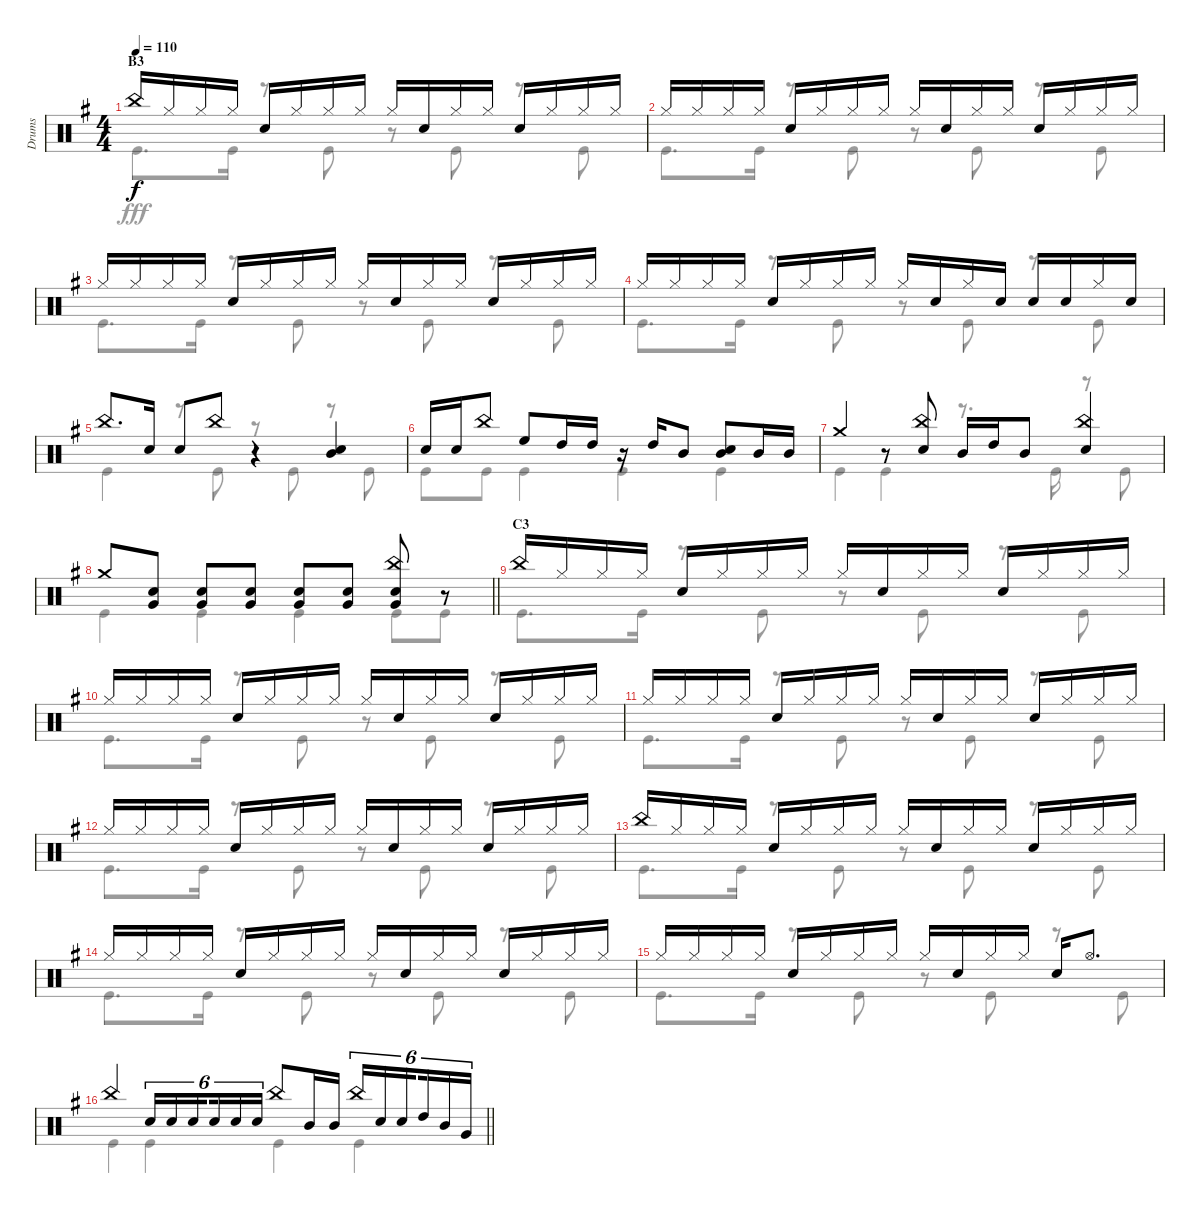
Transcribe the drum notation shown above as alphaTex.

\track ("Drums" "Drums") {instrument percussion}
\staff {score}
\articulation defaults
\voice
\ts (4 4)
\section ("" "B3")
\tempo 110
\clef neutral
\ks g "China (hit)".16{dy f} "Hi-Hat (closed)".16 "Hi-Hat (closed)".16 "Hi-Hat (closed)".16 "Snare (hit) 2".16 "Hi-Hat (closed)".16 "Hi-Hat (closed)".16 "Hi-Hat (closed)".16 "Hi-Hat (closed)".16 "Snare (hit) 2".16 "Hi-Hat (closed)".16 "Hi-Hat (closed)".16 "Snare (hit) 2".16 "Hi-Hat (closed)".16 "Hi-Hat (closed)".16 "Hi-Hat (closed)".16
|
"Hi-Hat (closed)".16 "Hi-Hat (closed)".16 "Hi-Hat (closed)".16 "Hi-Hat (closed)".16 "Snare (hit) 2".16 "Hi-Hat (closed)".16 "Hi-Hat (closed)".16 "Hi-Hat (closed)".16 "Hi-Hat (closed)".16 "Snare (hit) 2".16 "Hi-Hat (closed)".16 "Hi-Hat (closed)".16 "Snare (hit) 2".16 "Hi-Hat (closed)".16 "Hi-Hat (closed)".16 "Hi-Hat (closed)".16 |
"Hi-Hat (closed)".16 "Hi-Hat (closed)".16 "Hi-Hat (closed)".16 "Hi-Hat (closed)".16 "Snare (hit) 2".16 "Hi-Hat (closed)".16 "Hi-Hat (closed)".16 "Hi-Hat (closed)".16 "Hi-Hat (closed)".16 "Snare (hit) 2".16 "Hi-Hat (closed)".16 "Hi-Hat (closed)".16 "Snare (hit) 2".16 "Hi-Hat (closed)".16 "Hi-Hat (closed)".16 "Hi-Hat (closed)".16 |
"Hi-Hat (closed)".16 "Hi-Hat (closed)".16 "Hi-Hat (closed)".16 "Hi-Hat (closed)".16 "Snare (hit) 2".16 "Hi-Hat (closed)".16 "Hi-Hat (closed)".16 "Hi-Hat (closed)".16 "Hi-Hat (closed)".16 "Snare (hit) 2".16 "Hi-Hat (closed)".16 "Snare (hit) 2".16 "Snare (hit) 2".16 "Snare (hit) 2".16 "Hi-Hat (closed)".16 "Snare (hit) 2".16 |
"China (hit)".8{d} "Snare (hit) 2".16 "Snare (hit) 2".8 "China (hit)".8 r.4 ("Mid Tom (hit)" "Snare (hit) 2").4 |
"Snare (hit) 2".16 "Snare (hit) 2".16 "China (hit)".8 "High Floor Tom (hit)".8 "High Tom (hit)".16 "High Tom (hit)".16 r.16 "High Tom (hit)".16 "Mid Tom (hit)".8 ("Mid Tom (hit)" "Snare (hit) 2").8 "Mid Tom (hit)".16 "Mid Tom (hit)".16 |
"Crash medium (hit)".4 r.8 ("China (hit)" "Snare (hit) 2").8 "Mid Tom (hit)".16 "High Tom (hit)".16 "Mid Tom (hit)".8 ("China (hit)" "Snare (hit) 2").4 |
\barLineRight lightlight "Crash medium (hit)".8
("Snare (hit) 2" "Very Low Tom (hit)").8 ("Snare (hit) 2" "Very Low Tom (hit)").8 ("Snare (hit) 2" "Very Low Tom (hit)").8 ("Snare (hit) 2" "Very Low Tom (hit)").8 ("Snare (hit) 2" "Very Low Tom (hit)").8 ("Snare (hit) 2" "Very Low Tom (hit)" "China (hit)").8 r.8 |
\section ("" "C3")
"China (hit)".16 "Hi-Hat (closed)".16 "Hi-Hat (closed)".16 "Hi-Hat (closed)".16 "Snare (hit) 2".16 "Hi-Hat (closed)".16 "Hi-Hat (closed)".16 "Hi-Hat (closed)".16 "Hi-Hat (closed)".16 "Snare (hit) 2".16 "Hi-Hat (closed)".16 "Hi-Hat (closed)".16 "Snare (hit) 2".16 "Hi-Hat (closed)".16 "Hi-Hat (closed)".16 "Hi-Hat (closed)".16 |
"Hi-Hat (closed)".16 "Hi-Hat (closed)".16 "Hi-Hat (closed)".16 "Hi-Hat (closed)".16 "Snare (hit) 2".16 "Hi-Hat (closed)".16 "Hi-Hat (closed)".16 "Hi-Hat (closed)".16 "Hi-Hat (closed)".16 "Snare (hit) 2".16 "Hi-Hat (closed)".16 "Hi-Hat (closed)".16 "Snare (hit) 2".16 "Hi-Hat (closed)".16 "Hi-Hat (closed)".16 "Hi-Hat (closed)".16 |
"Hi-Hat (closed)".16 "Hi-Hat (closed)".16 "Hi-Hat (closed)".16 "Hi-Hat (closed)".16 "Snare (hit) 2".16 "Hi-Hat (closed)".16 "Hi-Hat (closed)".16 "Hi-Hat (closed)".16 "Hi-Hat (closed)".16 "Snare (hit) 2".16 "Hi-Hat (closed)".16 "Hi-Hat (closed)".16 "Snare (hit) 2".16 "Hi-Hat (closed)".16 "Hi-Hat (closed)".16 "Hi-Hat (closed)".16 |
"Hi-Hat (closed)".16 "Hi-Hat (closed)".16 "Hi-Hat (closed)".16 "Hi-Hat (closed)".16 "Snare (hit) 2".16 "Hi-Hat (closed)".16 "Hi-Hat (closed)".16 "Hi-Hat (closed)".16 "Hi-Hat (closed)".16 "Snare (hit) 2".16 "Hi-Hat (closed)".16 "Hi-Hat (closed)".16 "Snare (hit) 2".16 "Hi-Hat (closed)".16 "Hi-Hat (closed)".16 "Hi-Hat (closed)".16 |
"China (hit)".16 "Hi-Hat (closed)".16 "Hi-Hat (closed)".16 "Hi-Hat (closed)".16 "Snare (hit) 2".16 "Hi-Hat (closed)".16 "Hi-Hat (closed)".16 "Hi-Hat (closed)".16 "Hi-Hat (closed)".16 "Snare (hit) 2".16 "Hi-Hat (closed)".16 "Hi-Hat (closed)".16 "Snare (hit) 2".16 "Hi-Hat (closed)".16 "Hi-Hat (closed)".16 "Hi-Hat (closed)".16 |
"Hi-Hat (closed)".16 "Hi-Hat (closed)".16 "Hi-Hat (closed)".16 "Hi-Hat (closed)".16 "Snare (hit) 2".16 "Hi-Hat (closed)".16 "Hi-Hat (closed)".16 "Hi-Hat (closed)".16 "Hi-Hat (closed)".16 "Snare (hit) 2".16 "Hi-Hat (closed)".16 "Hi-Hat (closed)".16 "Snare (hit) 2".16 "Hi-Hat (closed)".16 "Hi-Hat (closed)".16 "Hi-Hat (closed)".16 |
"Hi-Hat (closed)".16 "Hi-Hat (closed)".16 "Hi-Hat (closed)".16 "Hi-Hat (closed)".16 "Snare (hit) 2".16 "Hi-Hat (closed)".16 "Hi-Hat (closed)".16 "Hi-Hat (closed)".16 "Hi-Hat (closed)".16 "Snare (hit) 2".16 "Hi-Hat (closed)".16 "Hi-Hat (closed)".16 "Snare (hit) 2".16 "Hi-Hat (open)".8{d} |
\barLineRight lightlight "China (hit)".4 "Snare (hit) 2".16{tu (6 4)} "Snare (hit) 2".16{tu (6 4)} "Snare (hit) 2".16{tu (6 4) beam splitsecondary} "Snare (hit) 2".16{tu (6 4)} "Snare (hit) 2".16{tu (6 4)} "Snare (hit) 2".16{tu (6 4)} "China (hit)".8 "Mid Tom (hit)".16 "Mid Tom (hit)".16 "China (hit)".16{tu (6 4)} "Snare (hit) 2".16{tu (6 4)} "Snare (hit) 2".16{tu (6 4) beam splitsecondary} "High Tom (hit)".16{tu (6 4)} "Mid Tom (hit)".16{tu (6 4)} "Very Low Tom (hit)".16{tu (6 4)}
\voice
\clef neutral
\ottava regular
\simile none
\ks g "Kick (hit)".8{d dy fff} "Kick (hit)".16
r.8 "Kick (hit)".8 r.8 "Kick (hit)".8 r.8 "Kick (hit)".8 |
"Kick (hit)".8{d} "Kick (hit)".16 r.8 "Kick (hit)".8 r.8 "Kick (hit)".8 r.8 "Kick (hit)".8 |
"Kick (hit)".8{d} "Kick (hit)".16 r.8 "Kick (hit)".8 r.8 "Kick (hit)".8 r.8 "Kick (hit)".8 |
"Kick (hit)".8{d} "Kick (hit)".16 r.8 "Kick (hit)".8 r.8 "Kick (hit)".8 r.8 "Kick (hit)".8 |
"Kick (hit)".4 r.8 "Kick (hit)".8 r.8 "Kick (hit)".8 r.8 "Kick (hit)".8 |
"Kick (hit)".8 "Kick (hit)".8 "Kick (hit)".4 "Kick (hit)".4 "Kick (hit)".4 |
"Kick (hit)".4 "Kick (hit)".4 r.8{d} "Kick (hit)".16 r.8 "Kick (hit)".8 |
\barLineRight lightlight "Kick (hit)".4 "Kick (hit)".4 "Kick (hit)".4 "Kick (hit)".8 "Kick (hit)".8
|
"Kick (hit)".8{d} "Kick (hit)".16 r.8 "Kick (hit)".8 r.8 "Kick (hit)".8 r.8 "Kick (hit)".8 |
"Kick (hit)".8{d} "Kick (hit)".16 r.8 "Kick (hit)".8 r.8 "Kick (hit)".8 r.8 "Kick (hit)".8 |
"Kick (hit)".8{d} "Kick (hit)".16 r.8 "Kick (hit)".8 r.8 "Kick (hit)".8 r.8 "Kick (hit)".8 |
"Kick (hit)".8{d} "Kick (hit)".16 r.8 "Kick (hit)".8 r.8 "Kick (hit)".8 r.8 "Kick (hit)".8 |
"Kick (hit)".8{d} "Kick (hit)".16 r.8 "Kick (hit)".8 r.8 "Kick (hit)".8 r.8 "Kick (hit)".8 |
"Kick (hit)".8{d} "Kick (hit)".16 r.8 "Kick (hit)".8 r.8 "Kick (hit)".8 r.8 "Kick (hit)".8 |
"Kick (hit)".8{d} "Kick (hit)".16 r.8 "Kick (hit)".8 r.8 "Kick (hit)".8 r.8 "Kick (hit)".8 |
\barLineRight lightlight "Kick (hit)".4 "Kick (hit)".4 "Kick (hit)".4 "Kick (hit)".4
